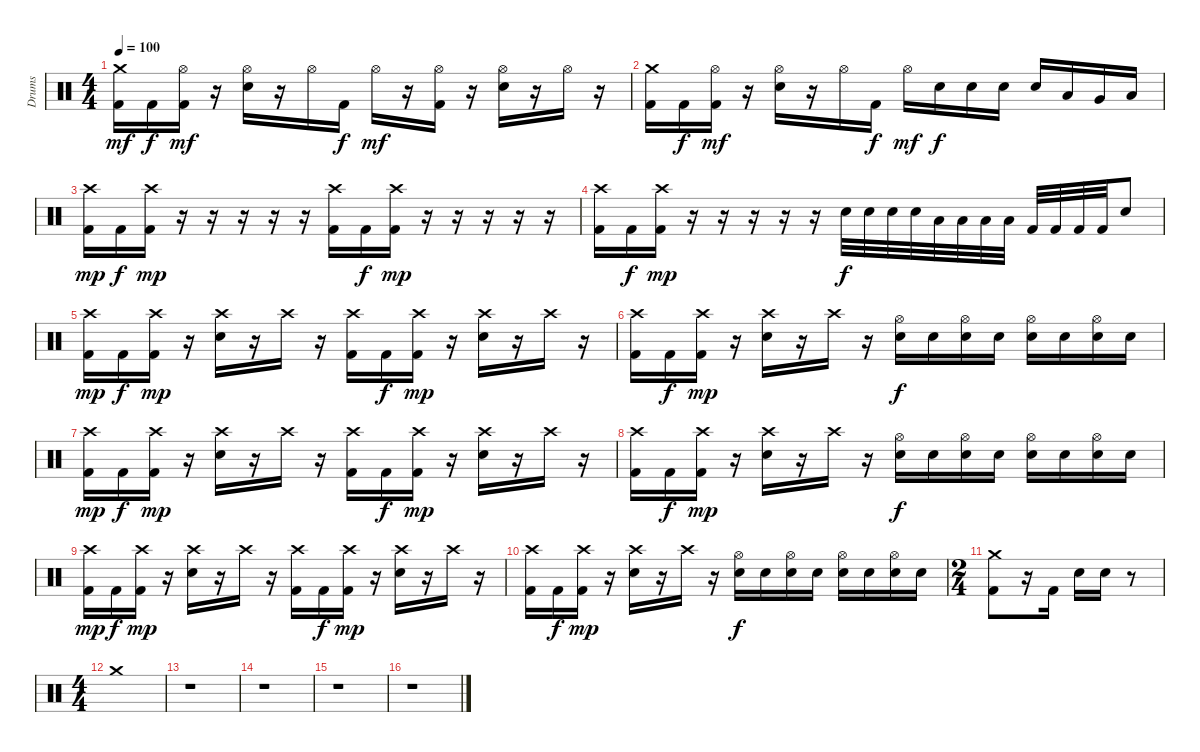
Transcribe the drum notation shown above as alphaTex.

\track ("Drums" "Drums") {instrument percussion}
\staff {score}
\articulation defaults
\ts (4 4)
\tempo 100
\clef neutral
\ks c
("Crash medium (hit)" "Kick (hit) 2").16{dy mf} "Kick (hit) 2".16{dy f} ("Hi-Hat (open)" "Kick (hit) 2").16{dy mf} r.16 ("Hi-Hat (open)" "Snare (hit) 2").16 r.16 "Hi-Hat (open)".16 "Kick (hit) 2".16{dy f} "Hi-Hat (open)".16{dy mf} r.16 ("Hi-Hat (open)" "Kick (hit) 2").16 r.16 ("Hi-Hat (open)" "Snare (hit) 2").16 r.16 "Hi-Hat (open)".16 r.16 |
("Crash medium (hit)" "Kick (hit) 2").16 "Kick (hit) 2".16{dy f} ("Hi-Hat (open)" "Kick (hit) 2").16{dy mf} r.16 ("Hi-Hat (open)" "Snare (hit) 2").16 r.16 "Hi-Hat (open)".16 "Kick (hit) 2".16{dy f} "Hi-Hat (open)".16{dy mf} "Snare (hit) 2".16{dy f} "Snare (hit) 2".16 "Snare (hit) 2".16 "Snare (hit) 2".16 "Low Tom (hit)".16 "Very Low Tom (hit)".16 "Low Floor Tom (hit)".16 |
("Crash high (hit)" "Kick (hit) 2").16{dy mp} "Kick (hit) 2".16{dy f} ("Crash high (hit)" "Kick (hit) 2").16{dy mp} r.16 r.16 r.16 r.16 r.16 ("Crash high (hit)" "Kick (hit) 2").16 "Kick (hit) 2".16{dy f} ("Crash high (hit)" "Kick (hit) 2").16{dy mp} r.16 r.16 r.16 r.16 r.16 |
("Crash high (hit)" "Kick (hit) 2").16 "Kick (hit) 2".16{dy f} ("Crash high (hit)" "Kick (hit) 2").16{dy mp} r.16 r.16 r.16 r.16 r.16 "Snare (hit) 2".32{dy f} "Snare (hit) 2".32 "Snare (hit) 2".32 "Snare (hit) 2".32 "Low Tom (hit)".32 "Low Tom (hit)".32 "Low Tom (hit)".32 "Low Tom (hit)".32 "Kick (hit) 2".32 "Kick (hit) 2".32 "Kick (hit) 2".32 "Kick (hit) 2".32 "Snare (hit) 2".8 |
("Crash high (hit)" "Kick (hit) 2").16{dy mp} "Kick (hit) 2".16{dy f} ("Crash high (hit)" "Kick (hit) 2").16{dy mp} r.16 ("Crash high (hit)" "Snare (hit) 2").16 r.16 "Crash high (hit)".16 r.16 ("Crash high (hit)" "Kick (hit) 2").16 "Kick (hit) 2".16{dy f} ("Crash high (hit)" "Kick (hit) 2").16{dy mp} r.16 ("Crash high (hit)" "Snare (hit) 2").16 r.16 "Crash high (hit)".16 r.16 |
("Crash high (hit)" "Kick (hit) 2").16 "Kick (hit) 2".16{dy f} ("Crash high (hit)" "Kick (hit) 2").16{dy mp} r.16 ("Crash high (hit)" "Snare (hit) 2").16 r.16 "Crash high (hit)".16 r.16 ("Hi-Hat (open)" "Snare (hit) 2").16{dy f} "Snare (hit) 2".16 ("Hi-Hat (open)" "Snare (hit) 2").16 "Snare (hit) 2".16 ("Hi-Hat (open)" "Snare (hit) 2").16 "Snare (hit) 2".16 ("Hi-Hat (open)" "Snare (hit) 2").16 "Snare (hit) 2".16 |
("Crash high (hit)" "Kick (hit) 2").16{dy mp} "Kick (hit) 2".16{dy f} ("Crash high (hit)" "Kick (hit) 2").16{dy mp} r.16 ("Crash high (hit)" "Snare (hit) 2").16 r.16 "Crash high (hit)".16 r.16 ("Crash high (hit)" "Kick (hit) 2").16 "Kick (hit) 2".16{dy f} ("Crash high (hit)" "Kick (hit) 2").16{dy mp} r.16 ("Crash high (hit)" "Snare (hit) 2").16 r.16 "Crash high (hit)".16 r.16 |
("Crash high (hit)" "Kick (hit) 2").16 "Kick (hit) 2".16{dy f} ("Crash high (hit)" "Kick (hit) 2").16{dy mp} r.16 ("Crash high (hit)" "Snare (hit) 2").16 r.16 "Crash high (hit)".16 r.16 ("Hi-Hat (open)" "Snare (hit) 2").16{dy f} "Snare (hit) 2".16 ("Hi-Hat (open)" "Snare (hit) 2").16 "Snare (hit) 2".16 ("Hi-Hat (open)" "Snare (hit) 2").16 "Snare (hit) 2".16 ("Hi-Hat (open)" "Snare (hit) 2").16 "Snare (hit) 2".16 |
("Crash high (hit)" "Kick (hit) 2").16{dy mp} "Kick (hit) 2".16{dy f} ("Crash high (hit)" "Kick (hit) 2").16{dy mp} r.16 ("Crash high (hit)" "Snare (hit) 2").16 r.16 "Crash high (hit)".16 r.16 ("Crash high (hit)" "Kick (hit) 2").16 "Kick (hit) 2".16{dy f} ("Crash high (hit)" "Kick (hit) 2").16{dy mp} r.16 ("Crash high (hit)" "Snare (hit) 2").16 r.16 "Crash high (hit)".16 r.16 |
("Crash high (hit)" "Kick (hit) 2").16 "Kick (hit) 2".16{dy f} ("Crash high (hit)" "Kick (hit) 2").16{dy mp} r.16 ("Crash high (hit)" "Snare (hit) 2").16 r.16 "Crash high (hit)".16 r.16 ("Hi-Hat (open)" "Snare (hit) 2").16{dy f} "Snare (hit) 2".16 ("Hi-Hat (open)" "Snare (hit) 2").16 "Snare (hit) 2".16 ("Hi-Hat (open)" "Snare (hit) 2").16 "Snare (hit) 2".16 ("Hi-Hat (open)" "Snare (hit) 2").16 "Snare (hit) 2".16 |
\ts (2 4)
("Crash medium (hit)" "Kick (hit) 2").8 r.16 "Kick (hit) 2".16 "Snare (hit) 2".16 "Snare (hit) 2".16 r.8 |
\ts (4 4)
"Crash medium (hit)".1 |
r.1 |
r.1 |
r.1 |
r.1
